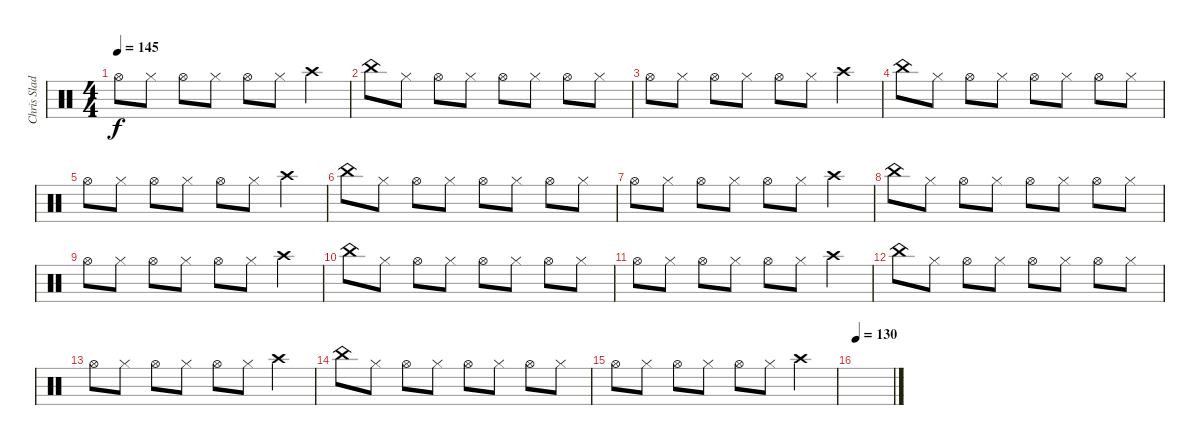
\track ("Chris Slade" "Chris Slad") {instrument percussion}
\staff {score}
\articulation defaults
\ts (4 4)
\tempo 145
\clef neutral
\ks c "Hi-Hat (open)".8{dy f} "Hi-Hat (closed)".8 "Hi-Hat (open)".8 "Hi-Hat (closed)".8 "Hi-Hat (open)".8 "Hi-Hat (closed)".8 "Crash high (hit)".4
|
"China (hit)".8 "Hi-Hat (closed)".8 "Hi-Hat (open)".8 "Hi-Hat (closed)".8 "Hi-Hat (open)".8 "Hi-Hat (closed)".8 "Hi-Hat (open)".8 "Hi-Hat (closed)".8 |
"Hi-Hat (open)".8 "Hi-Hat (closed)".8 "Hi-Hat (open)".8 "Hi-Hat (closed)".8 "Hi-Hat (open)".8 "Hi-Hat (closed)".8 "Crash high (hit)".4 |
"China (hit)".8 "Hi-Hat (closed)".8 "Hi-Hat (open)".8 "Hi-Hat (closed)".8 "Hi-Hat (open)".8 "Hi-Hat (closed)".8 "Hi-Hat (open)".8 "Hi-Hat (closed)".8 |
"Hi-Hat (open)".8 "Hi-Hat (closed)".8 "Hi-Hat (open)".8 "Hi-Hat (closed)".8 "Hi-Hat (open)".8 "Hi-Hat (closed)".8 "Crash high (hit)".4 |
"China (hit)".8 "Hi-Hat (closed)".8 "Hi-Hat (open)".8 "Hi-Hat (closed)".8 "Hi-Hat (open)".8 "Hi-Hat (closed)".8 "Hi-Hat (open)".8 "Hi-Hat (closed)".8 |
"Hi-Hat (open)".8 "Hi-Hat (closed)".8 "Hi-Hat (open)".8 "Hi-Hat (closed)".8 "Hi-Hat (open)".8 "Hi-Hat (closed)".8 "Crash high (hit)".4 |
"China (hit)".8 "Hi-Hat (closed)".8 "Hi-Hat (open)".8 "Hi-Hat (closed)".8 "Hi-Hat (open)".8 "Hi-Hat (closed)".8 "Hi-Hat (open)".8 "Hi-Hat (closed)".8 |
"Hi-Hat (open)".8 "Hi-Hat (closed)".8 "Hi-Hat (open)".8 "Hi-Hat (closed)".8 "Hi-Hat (open)".8 "Hi-Hat (closed)".8 "Crash high (hit)".4 |
"China (hit)".8 "Hi-Hat (closed)".8 "Hi-Hat (open)".8 "Hi-Hat (closed)".8 "Hi-Hat (open)".8 "Hi-Hat (closed)".8 "Hi-Hat (open)".8 "Hi-Hat (closed)".8 |
"Hi-Hat (open)".8 "Hi-Hat (closed)".8 "Hi-Hat (open)".8 "Hi-Hat (closed)".8 "Hi-Hat (open)".8 "Hi-Hat (closed)".8 "Crash high (hit)".4 |
"China (hit)".8 "Hi-Hat (closed)".8 "Hi-Hat (open)".8 "Hi-Hat (closed)".8 "Hi-Hat (open)".8 "Hi-Hat (closed)".8 "Hi-Hat (open)".8 "Hi-Hat (closed)".8 |
"Hi-Hat (open)".8 "Hi-Hat (closed)".8 "Hi-Hat (open)".8 "Hi-Hat (closed)".8 "Hi-Hat (open)".8 "Hi-Hat (closed)".8 "Crash high (hit)".4 |
"China (hit)".8 "Hi-Hat (closed)".8 "Hi-Hat (open)".8 "Hi-Hat (closed)".8 "Hi-Hat (open)".8 "Hi-Hat (closed)".8 "Hi-Hat (open)".8 "Hi-Hat (closed)".8 |
"Hi-Hat (open)".8 "Hi-Hat (closed)".8 "Hi-Hat (open)".8 "Hi-Hat (closed)".8 "Hi-Hat (open)".8 "Hi-Hat (closed)".8 "Crash high (hit)".4 |
\tempo 130
